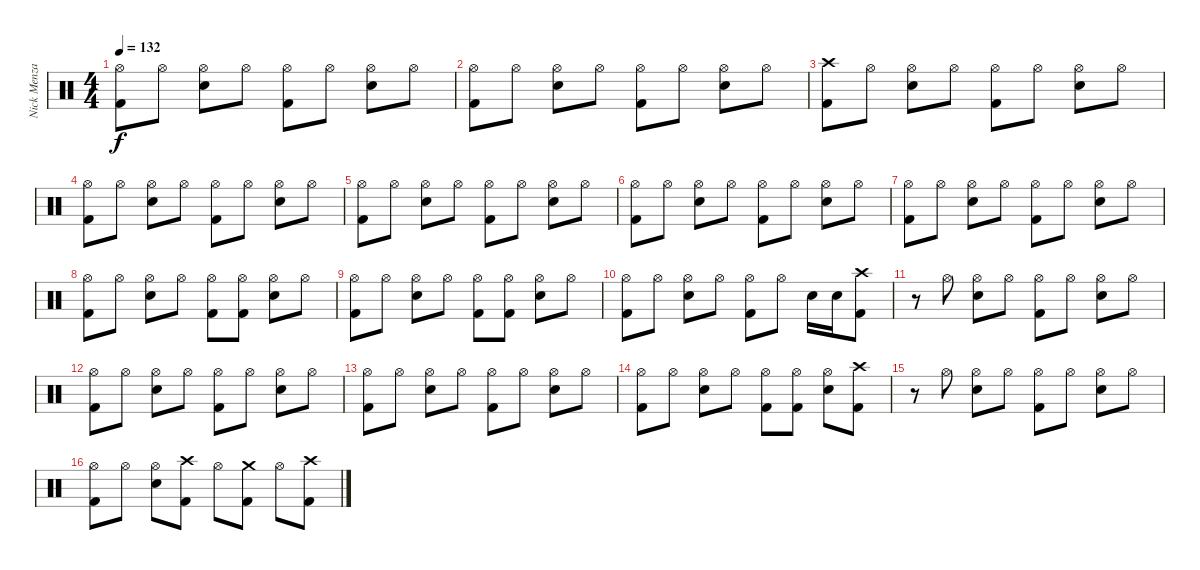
\track ("Nick Menza (Drums)" "Nick Menza") {instrument percussion}
\staff {score}
\articulation defaults
\ts (4 4)
\tempo 132
\clef neutral
\ks c
("Hi-Hat (open)" "Kick (hit) 2").8{dy f} "Hi-Hat (open)".8 ("Hi-Hat (open)" "Snare (hit) 2").8 "Hi-Hat (open)".8 ("Hi-Hat (open)" "Kick (hit) 2").8 "Hi-Hat (open)".8 ("Hi-Hat (open)" "Snare (hit) 2").8 "Hi-Hat (open)".8 |
("Hi-Hat (open)" "Kick (hit) 2").8 "Hi-Hat (open)".8 ("Hi-Hat (open)" "Snare (hit) 2").8 "Hi-Hat (open)".8 ("Hi-Hat (open)" "Kick (hit) 2").8 "Hi-Hat (open)".8 ("Hi-Hat (open)" "Snare (hit) 2").8 "Hi-Hat (open)".8 |
("Crash high (hit)" "Kick (hit) 2").8 "Hi-Hat (open)".8 ("Hi-Hat (open)" "Snare (hit) 2").8 "Hi-Hat (open)".8 ("Hi-Hat (open)" "Kick (hit) 2").8 "Hi-Hat (open)".8 ("Hi-Hat (open)" "Snare (hit) 2").8 "Hi-Hat (open)".8 |
("Hi-Hat (open)" "Kick (hit) 2").8 "Hi-Hat (open)".8 ("Hi-Hat (open)" "Snare (hit) 2").8 "Hi-Hat (open)".8 ("Hi-Hat (open)" "Kick (hit) 2").8 "Hi-Hat (open)".8 ("Hi-Hat (open)" "Snare (hit) 2").8 "Hi-Hat (open)".8 |
("Hi-Hat (open)" "Kick (hit) 2").8 "Hi-Hat (open)".8 ("Hi-Hat (open)" "Snare (hit) 2").8 "Hi-Hat (open)".8 ("Hi-Hat (open)" "Kick (hit) 2").8 "Hi-Hat (open)".8 ("Hi-Hat (open)" "Snare (hit) 2").8 "Hi-Hat (open)".8 |
("Hi-Hat (open)" "Kick (hit) 2").8 "Hi-Hat (open)".8 ("Hi-Hat (open)" "Snare (hit) 2").8 "Hi-Hat (open)".8 ("Hi-Hat (open)" "Kick (hit) 2").8 "Hi-Hat (open)".8 ("Hi-Hat (open)" "Snare (hit) 2").8 "Hi-Hat (open)".8 |
("Hi-Hat (open)" "Kick (hit) 2").8 "Hi-Hat (open)".8 ("Hi-Hat (open)" "Snare (hit) 2").8 "Hi-Hat (open)".8 ("Hi-Hat (open)" "Kick (hit) 2").8 "Hi-Hat (open)".8 ("Hi-Hat (open)" "Snare (hit) 2").8 "Hi-Hat (open)".8 |
("Hi-Hat (open)" "Kick (hit) 2").8 "Hi-Hat (open)".8 ("Hi-Hat (open)" "Snare (hit) 2").8 "Hi-Hat (open)".8 ("Hi-Hat (open)" "Kick (hit) 2").8 ("Hi-Hat (open)" "Kick (hit) 2").8 ("Hi-Hat (open)" "Snare (hit) 2").8 "Hi-Hat (open)".8 |
("Hi-Hat (open)" "Kick (hit) 2").8 "Hi-Hat (open)".8 ("Hi-Hat (open)" "Snare (hit) 2").8 "Hi-Hat (open)".8 ("Hi-Hat (open)" "Kick (hit) 2").8 ("Hi-Hat (open)" "Kick (hit) 2").8 ("Hi-Hat (open)" "Snare (hit) 2").8 "Hi-Hat (open)".8 |
("Hi-Hat (open)" "Kick (hit) 2").8 "Hi-Hat (open)".8 ("Hi-Hat (open)" "Snare (hit) 2").8 "Hi-Hat (open)".8 ("Hi-Hat (open)" "Kick (hit) 2").8 "Hi-Hat (open)".8 "Snare (hit) 2".16 "Snare (hit) 2".16 ("Crash high (hit)" "Kick (hit) 2").8 |
r.8 "Hi-Hat (open)".8 ("Hi-Hat (open)" "Snare (hit) 2").8 "Hi-Hat (open)".8 ("Hi-Hat (open)" "Kick (hit) 2").8 "Hi-Hat (open)".8 ("Hi-Hat (open)" "Snare (hit) 2").8 "Hi-Hat (open)".8 |
("Hi-Hat (open)" "Kick (hit) 2").8 "Hi-Hat (open)".8 ("Hi-Hat (open)" "Snare (hit) 2").8 "Hi-Hat (open)".8 ("Hi-Hat (open)" "Kick (hit) 2").8 "Hi-Hat (open)".8 ("Hi-Hat (open)" "Snare (hit) 2").8 "Hi-Hat (open)".8 |
("Hi-Hat (open)" "Kick (hit) 2").8 "Hi-Hat (open)".8 ("Hi-Hat (open)" "Snare (hit) 2").8 "Hi-Hat (open)".8 ("Hi-Hat (open)" "Kick (hit) 2").8 "Hi-Hat (open)".8 ("Hi-Hat (open)" "Snare (hit) 2").8 "Hi-Hat (open)".8 |
("Hi-Hat (open)" "Kick (hit) 2").8 "Hi-Hat (open)".8 ("Hi-Hat (open)" "Snare (hit) 2").8 "Hi-Hat (open)".8 ("Hi-Hat (open)" "Kick (hit) 2").8 ("Hi-Hat (open)" "Kick (hit) 2").8 ("Hi-Hat (open)" "Snare (hit) 2").8 ("Crash high (hit)" "Kick (hit) 2").8 |
r.8 "Hi-Hat (open)".8 ("Hi-Hat (open)" "Snare (hit) 2").8 "Hi-Hat (open)".8 ("Hi-Hat (open)" "Kick (hit) 2").8 "Hi-Hat (open)".8 ("Hi-Hat (open)" "Snare (hit) 2").8 "Hi-Hat (open)".8 |
("Hi-Hat (open)" "Kick (hit) 2").8 "Hi-Hat (open)".8 ("Hi-Hat (open)" "Snare (hit) 2").8 ("Crash high (hit)" "Kick (hit) 2").8 "Hi-Hat (open)".8 ("Crash medium (hit)" "Kick (hit) 2").8 "Hi-Hat (open)".8 ("Crash high (hit)" "Kick (hit) 2").8
